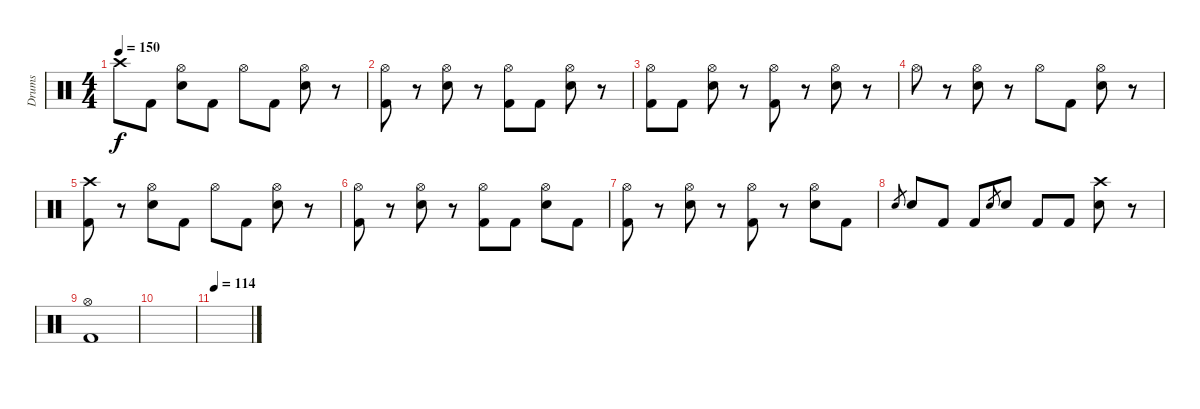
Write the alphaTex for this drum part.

\track ("Drums" "Drums") {instrument percussion}
\staff {score}
\articulation defaults
\ts (4 4)
\tempo 150
\clef neutral
\ks c "Crash high (hit)".8{dy f} "Kick (hit) 2".8
("Hi-Hat (open)" "Electric Snare (hit)").8 "Kick (hit) 2".8 "Hi-Hat (open)".8 "Kick (hit) 2".8 ("Hi-Hat (open)" "Electric Snare (hit)").8 r.8 |
("Hi-Hat (open)" "Kick (hit) 2").8 r.8 ("Hi-Hat (open)" "Electric Snare (hit)").8 r.8 ("Hi-Hat (open)" "Kick (hit) 2").8 "Kick (hit) 2".8 ("Hi-Hat (open)" "Electric Snare (hit)").8 r.8 |
("Hi-Hat (open)" "Kick (hit) 2").8 "Kick (hit) 2".8 ("Hi-Hat (open)" "Electric Snare (hit)").8 r.8 ("Hi-Hat (open)" "Kick (hit) 2").8 r.8 ("Hi-Hat (open)" "Electric Snare (hit)").8 r.8 |
"Hi-Hat (open)".8 r.8 ("Hi-Hat (open)" "Electric Snare (hit)").8 r.8 "Hi-Hat (open)".8 "Kick (hit) 2".8 ("Hi-Hat (open)" "Electric Snare (hit)").8 r.8 |
("Crash high (hit)" "Kick (hit) 2").8 r.8 ("Hi-Hat (open)" "Electric Snare (hit)").8 "Kick (hit) 2".8 "Hi-Hat (open)".8 "Kick (hit) 2".8 ("Hi-Hat (open)" "Electric Snare (hit)").8 r.8 |
("Hi-Hat (open)" "Kick (hit) 2").8 r.8 ("Hi-Hat (open)" "Electric Snare (hit)").8 r.8 ("Hi-Hat (open)" "Kick (hit) 2").8 "Kick (hit) 2".8 ("Hi-Hat (open)" "Electric Snare (hit)").8 "Kick (hit) 2".8 |
("Hi-Hat (open)" "Kick (hit) 2").8 r.8 ("Hi-Hat (open)" "Electric Snare (hit)").8 r.8 ("Hi-Hat (open)" "Kick (hit) 2").8 r.8 ("Hi-Hat (open)" "Electric Snare (hit)").8 "Kick (hit) 2".8 |
"Electric Snare (hit)".8{gr} "Electric Snare (hit)".8 "Kick (hit) 2".8 "Kick (hit) 2".8 "Electric Snare (hit)".8{gr} "Electric Snare (hit)".8 "Kick (hit) 2".8 "Kick (hit) 2".8 ("Crash high (hit)" "Electric Snare (hit)").8 r.8 |
("Hi-Hat (open)" "Kick (hit) 2").1 |
|
\tempo 114
